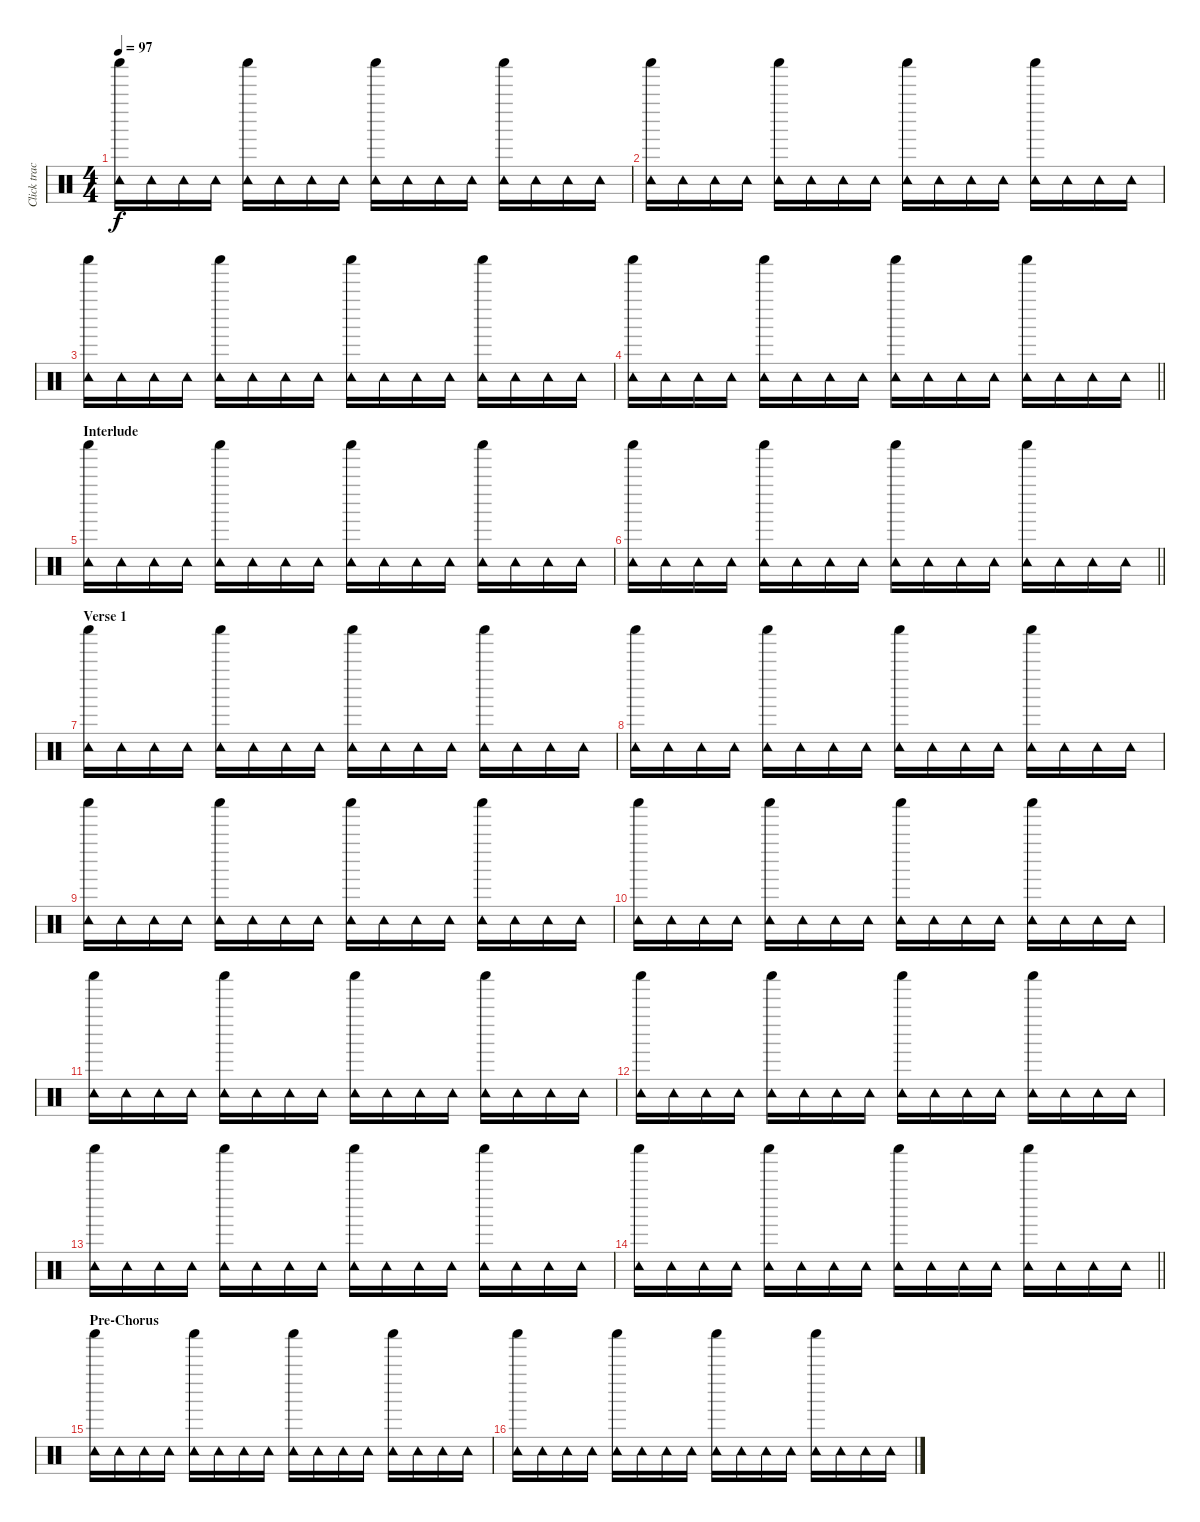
\track ("Click track" "Click trac") {instrument percussion}
\staff {score}
\articulation defaults
\ts (4 4)
\tempo 97
\clef neutral
\ks c
("Shaker (hit)" "Tambourine (hit)").16{dy f} "Tambourine (hit)".16 "Tambourine (hit)".16 "Tambourine (hit)".16 ("Shaker (hit)" "Tambourine (hit)").16 "Tambourine (hit)".16 "Tambourine (hit)".16 "Tambourine (hit)".16 ("Shaker (hit)" "Tambourine (hit)").16 "Tambourine (hit)".16 "Tambourine (hit)".16 "Tambourine (hit)".16 ("Shaker (hit)" "Tambourine (hit)").16 "Tambourine (hit)".16 "Tambourine (hit)".16 "Tambourine (hit)".16 |
("Shaker (hit)" "Tambourine (hit)").16 "Tambourine (hit)".16 "Tambourine (hit)".16 "Tambourine (hit)".16 ("Shaker (hit)" "Tambourine (hit)").16 "Tambourine (hit)".16 "Tambourine (hit)".16 "Tambourine (hit)".16 ("Shaker (hit)" "Tambourine (hit)").16 "Tambourine (hit)".16 "Tambourine (hit)".16 "Tambourine (hit)".16 ("Shaker (hit)" "Tambourine (hit)").16 "Tambourine (hit)".16 "Tambourine (hit)".16 "Tambourine (hit)".16 |
("Shaker (hit)" "Tambourine (hit)").16 "Tambourine (hit)".16 "Tambourine (hit)".16 "Tambourine (hit)".16 ("Shaker (hit)" "Tambourine (hit)").16 "Tambourine (hit)".16 "Tambourine (hit)".16 "Tambourine (hit)".16 ("Shaker (hit)" "Tambourine (hit)").16 "Tambourine (hit)".16 "Tambourine (hit)".16 "Tambourine (hit)".16 ("Shaker (hit)" "Tambourine (hit)").16 "Tambourine (hit)".16 "Tambourine (hit)".16 "Tambourine (hit)".16 |
\barLineRight lightlight
("Shaker (hit)" "Tambourine (hit)").16 "Tambourine (hit)".16 "Tambourine (hit)".16 "Tambourine (hit)".16 ("Shaker (hit)" "Tambourine (hit)").16 "Tambourine (hit)".16 "Tambourine (hit)".16 "Tambourine (hit)".16 ("Shaker (hit)" "Tambourine (hit)").16 "Tambourine (hit)".16 "Tambourine (hit)".16 "Tambourine (hit)".16 ("Shaker (hit)" "Tambourine (hit)").16 "Tambourine (hit)".16 "Tambourine (hit)".16 "Tambourine (hit)".16 |
\section ("" "Interlude")
("Shaker (hit)" "Tambourine (hit)").16 "Tambourine (hit)".16 "Tambourine (hit)".16 "Tambourine (hit)".16 ("Shaker (hit)" "Tambourine (hit)").16 "Tambourine (hit)".16 "Tambourine (hit)".16 "Tambourine (hit)".16 ("Shaker (hit)" "Tambourine (hit)").16 "Tambourine (hit)".16 "Tambourine (hit)".16 "Tambourine (hit)".16 ("Shaker (hit)" "Tambourine (hit)").16 "Tambourine (hit)".16 "Tambourine (hit)".16 "Tambourine (hit)".16 |
\barLineRight lightlight
("Shaker (hit)" "Tambourine (hit)").16 "Tambourine (hit)".16 "Tambourine (hit)".16 "Tambourine (hit)".16 ("Shaker (hit)" "Tambourine (hit)").16 "Tambourine (hit)".16 "Tambourine (hit)".16 "Tambourine (hit)".16 ("Shaker (hit)" "Tambourine (hit)").16 "Tambourine (hit)".16 "Tambourine (hit)".16 "Tambourine (hit)".16 ("Shaker (hit)" "Tambourine (hit)").16 "Tambourine (hit)".16 "Tambourine (hit)".16 "Tambourine (hit)".16 |
\section ("" "Verse 1")
("Shaker (hit)" "Tambourine (hit)").16 "Tambourine (hit)".16 "Tambourine (hit)".16 "Tambourine (hit)".16 ("Shaker (hit)" "Tambourine (hit)").16 "Tambourine (hit)".16 "Tambourine (hit)".16 "Tambourine (hit)".16 ("Shaker (hit)" "Tambourine (hit)").16 "Tambourine (hit)".16 "Tambourine (hit)".16 "Tambourine (hit)".16 ("Shaker (hit)" "Tambourine (hit)").16 "Tambourine (hit)".16 "Tambourine (hit)".16 "Tambourine (hit)".16 |
("Shaker (hit)" "Tambourine (hit)").16 "Tambourine (hit)".16 "Tambourine (hit)".16 "Tambourine (hit)".16 ("Shaker (hit)" "Tambourine (hit)").16 "Tambourine (hit)".16 "Tambourine (hit)".16 "Tambourine (hit)".16 ("Shaker (hit)" "Tambourine (hit)").16 "Tambourine (hit)".16 "Tambourine (hit)".16 "Tambourine (hit)".16 ("Shaker (hit)" "Tambourine (hit)").16 "Tambourine (hit)".16 "Tambourine (hit)".16 "Tambourine (hit)".16 |
("Shaker (hit)" "Tambourine (hit)").16 "Tambourine (hit)".16 "Tambourine (hit)".16 "Tambourine (hit)".16 ("Shaker (hit)" "Tambourine (hit)").16 "Tambourine (hit)".16 "Tambourine (hit)".16 "Tambourine (hit)".16 ("Shaker (hit)" "Tambourine (hit)").16 "Tambourine (hit)".16 "Tambourine (hit)".16 "Tambourine (hit)".16 ("Shaker (hit)" "Tambourine (hit)").16 "Tambourine (hit)".16 "Tambourine (hit)".16 "Tambourine (hit)".16 |
("Shaker (hit)" "Tambourine (hit)").16 "Tambourine (hit)".16 "Tambourine (hit)".16 "Tambourine (hit)".16 ("Shaker (hit)" "Tambourine (hit)").16 "Tambourine (hit)".16 "Tambourine (hit)".16 "Tambourine (hit)".16 ("Shaker (hit)" "Tambourine (hit)").16 "Tambourine (hit)".16 "Tambourine (hit)".16 "Tambourine (hit)".16 ("Shaker (hit)" "Tambourine (hit)").16 "Tambourine (hit)".16 "Tambourine (hit)".16 "Tambourine (hit)".16 |
("Shaker (hit)" "Tambourine (hit)").16 "Tambourine (hit)".16 "Tambourine (hit)".16 "Tambourine (hit)".16 ("Shaker (hit)" "Tambourine (hit)").16 "Tambourine (hit)".16 "Tambourine (hit)".16 "Tambourine (hit)".16 ("Shaker (hit)" "Tambourine (hit)").16 "Tambourine (hit)".16 "Tambourine (hit)".16 "Tambourine (hit)".16 ("Shaker (hit)" "Tambourine (hit)").16 "Tambourine (hit)".16 "Tambourine (hit)".16 "Tambourine (hit)".16 |
("Shaker (hit)" "Tambourine (hit)").16 "Tambourine (hit)".16 "Tambourine (hit)".16 "Tambourine (hit)".16 ("Shaker (hit)" "Tambourine (hit)").16 "Tambourine (hit)".16 "Tambourine (hit)".16 "Tambourine (hit)".16 ("Shaker (hit)" "Tambourine (hit)").16 "Tambourine (hit)".16 "Tambourine (hit)".16 "Tambourine (hit)".16 ("Shaker (hit)" "Tambourine (hit)").16 "Tambourine (hit)".16 "Tambourine (hit)".16 "Tambourine (hit)".16 |
("Shaker (hit)" "Tambourine (hit)").16 "Tambourine (hit)".16 "Tambourine (hit)".16 "Tambourine (hit)".16 ("Shaker (hit)" "Tambourine (hit)").16 "Tambourine (hit)".16 "Tambourine (hit)".16 "Tambourine (hit)".16 ("Shaker (hit)" "Tambourine (hit)").16 "Tambourine (hit)".16 "Tambourine (hit)".16 "Tambourine (hit)".16 ("Shaker (hit)" "Tambourine (hit)").16 "Tambourine (hit)".16 "Tambourine (hit)".16 "Tambourine (hit)".16 |
\barLineRight lightlight
("Shaker (hit)" "Tambourine (hit)").16 "Tambourine (hit)".16 "Tambourine (hit)".16 "Tambourine (hit)".16 ("Shaker (hit)" "Tambourine (hit)").16 "Tambourine (hit)".16 "Tambourine (hit)".16 "Tambourine (hit)".16 ("Shaker (hit)" "Tambourine (hit)").16 "Tambourine (hit)".16 "Tambourine (hit)".16 "Tambourine (hit)".16 ("Shaker (hit)" "Tambourine (hit)").16 "Tambourine (hit)".16 "Tambourine (hit)".16 "Tambourine (hit)".16 |
\section ("" "Pre-Chorus")
("Shaker (hit)" "Tambourine (hit)").16 "Tambourine (hit)".16 "Tambourine (hit)".16 "Tambourine (hit)".16 ("Shaker (hit)" "Tambourine (hit)").16 "Tambourine (hit)".16 "Tambourine (hit)".16 "Tambourine (hit)".16 ("Shaker (hit)" "Tambourine (hit)").16 "Tambourine (hit)".16 "Tambourine (hit)".16 "Tambourine (hit)".16 ("Shaker (hit)" "Tambourine (hit)").16 "Tambourine (hit)".16 "Tambourine (hit)".16 "Tambourine (hit)".16 |
("Shaker (hit)" "Tambourine (hit)").16 "Tambourine (hit)".16 "Tambourine (hit)".16 "Tambourine (hit)".16 ("Shaker (hit)" "Tambourine (hit)").16 "Tambourine (hit)".16 "Tambourine (hit)".16 "Tambourine (hit)".16 ("Shaker (hit)" "Tambourine (hit)").16 "Tambourine (hit)".16 "Tambourine (hit)".16 "Tambourine (hit)".16 ("Shaker (hit)" "Tambourine (hit)").16 "Tambourine (hit)".16 "Tambourine (hit)".16 "Tambourine (hit)".16
